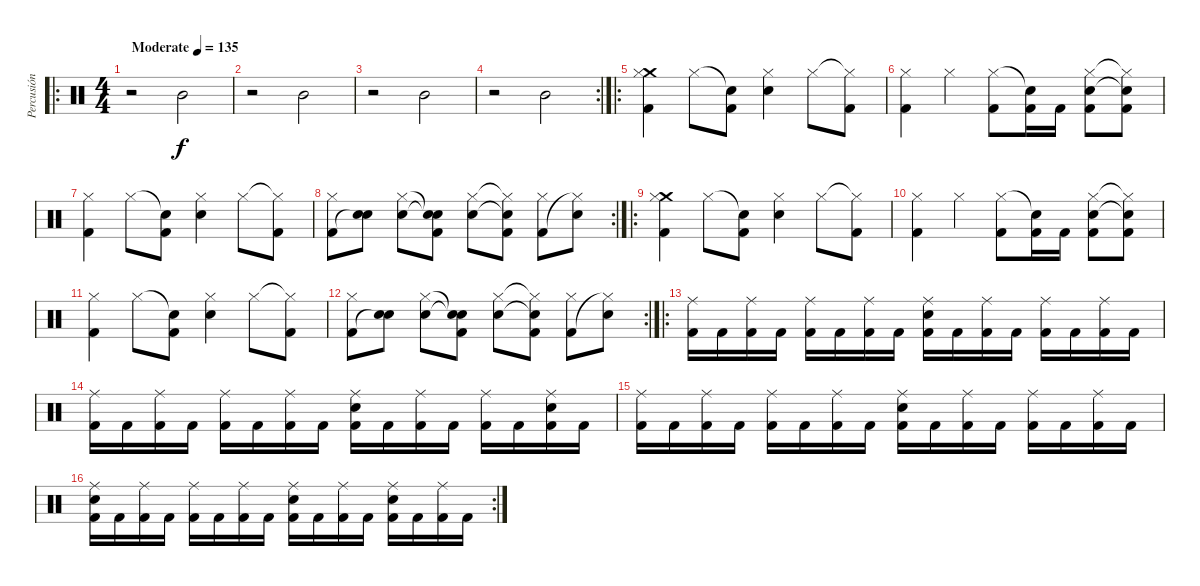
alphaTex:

\track ("Percusión" "Percusión") {instrument percussion}
\staff {score}
\articulation defaults
\ro
\ts (4 4)
\tempo (135 "Moderate")
\clef neutral
\ks c
r.2{dy f} "Mid Tom (hit)".2 |
r.2 "Mid Tom (hit)".2 |
r.2 "Mid Tom (hit)".2 |
\rc 2
r.2 "Mid Tom (hit)".2 |
\ro
("Crash medium (hit)" "Hi-Hat (closed)" "Kick (hit) 2").4 "Hi-Hat (closed)".8 ("Snare (hit)"{t} "Kick (hit) 2").8 ("Snare (hit) 2" "Hi-Hat (closed)").4 "Hi-Hat (closed)".8 ("Hi-Hat (closed)"{t} "Kick (hit) 2").8 |
("Hi-Hat (closed)" "Kick (hit) 2").4 "Hi-Hat (closed)".4 ("Hi-Hat (closed)" "Kick (hit) 2").8 ("Snare (hit)"{t} "Kick (hit) 2").16 "Kick (hit) 2".16 ("Snare (hit) 2" "Hi-Hat (closed)" "Kick (hit) 2").8 ("Snare (hit) 2"{t} "Hi-Hat (closed)"{t} "Kick (hit) 2").8 |
("Hi-Hat (closed)" "Kick (hit) 2").4 "Hi-Hat (closed)".8 ("Snare (hit)"{t} "Kick (hit) 2").8 ("Snare (hit) 2" "Hi-Hat (closed)").4 "Hi-Hat (closed)".8 ("Hi-Hat (closed)"{t} "Kick (hit) 2").8 |
\rc 2
("Hi-Hat (closed)" "Kick (hit) 2").8 ("Snare (hit) 2" "Snare (hit)"{t}).8 ("Snare (hit) 2" "Hi-Hat (closed)").8 ("Snare (hit)"{t} "Snare (hit)"{t} "Kick (hit) 2").8 ("Snare (hit) 2" "Hi-Hat (closed)").8 ("Snare (hit) 2"{t} "Hi-Hat (closed)"{t} "Kick (hit) 2").8 ("Hi-Hat (closed)" "Kick (hit) 2").8 ("Snare (hit) 2" "Hi-Hat (closed)"{t}).8 |
\ro
("Crash medium (hit)" "Hi-Hat (closed)" "Kick (hit) 2").4 "Hi-Hat (closed)".8 ("Snare (hit)"{t} "Kick (hit) 2").8 ("Snare (hit) 2" "Hi-Hat (closed)").4 "Hi-Hat (closed)".8 ("Hi-Hat (closed)"{t} "Kick (hit) 2").8 |
("Hi-Hat (closed)" "Kick (hit) 2").4 "Hi-Hat (closed)".4 ("Hi-Hat (closed)" "Kick (hit) 2").8 ("Snare (hit)"{t} "Kick (hit) 2").16 "Kick (hit) 2".16 ("Snare (hit) 2" "Hi-Hat (closed)" "Kick (hit) 2").8 ("Snare (hit) 2"{t} "Hi-Hat (closed)"{t} "Kick (hit) 2").8 |
("Hi-Hat (closed)" "Kick (hit) 2").4 "Hi-Hat (closed)".8 ("Snare (hit)"{t} "Kick (hit) 2").8 ("Snare (hit) 2" "Hi-Hat (closed)").4 "Hi-Hat (closed)".8 ("Hi-Hat (closed)"{t} "Kick (hit) 2").8 |
\rc 2
("Hi-Hat (closed)" "Kick (hit) 2").8 ("Snare (hit) 2" "Snare (hit)"{t}).8 ("Snare (hit) 2" "Hi-Hat (closed)").8 ("Snare (hit)"{t} "Snare (hit)"{t} "Kick (hit) 2").8 ("Snare (hit) 2" "Hi-Hat (closed)").8 ("Snare (hit) 2"{t} "Hi-Hat (closed)"{t} "Kick (hit) 2").8 ("Hi-Hat (closed)" "Kick (hit) 2").8 ("Snare (hit) 2" "Hi-Hat (closed)"{t}).8 |
\ro
("Kick (hit) 2" "Ride (middle)").16 "Kick (hit) 2".16 ("Kick (hit) 2" "Ride (middle)").16 "Kick (hit) 2".16 ("Kick (hit) 2" "Ride (middle)").16 "Kick (hit) 2".16 ("Kick (hit) 2" "Ride (middle)").16 "Kick (hit) 2".16 ("Snare (hit) 2" "Kick (hit) 2" "Ride (middle)").16 "Kick (hit) 2".16 ("Kick (hit) 2" "Ride (middle)").16 "Kick (hit) 2".16 ("Kick (hit) 2" "Ride (middle)").16 "Kick (hit) 2".16 ("Kick (hit) 2" "Ride (middle)").16 "Kick (hit) 2".16 |
("Kick (hit) 2" "Ride (middle)").16 "Kick (hit) 2".16 ("Kick (hit) 2" "Ride (middle)").16 "Kick (hit) 2".16 ("Kick (hit) 2" "Ride (middle)").16 "Kick (hit) 2".16 ("Kick (hit) 2" "Ride (middle)").16 "Kick (hit) 2".16 ("Snare (hit) 2" "Kick (hit) 2" "Ride (middle)").16 "Kick (hit) 2".16 ("Kick (hit) 2" "Ride (middle)").16 "Kick (hit) 2".16 ("Kick (hit) 2" "Ride (middle)").16 "Kick (hit) 2".16 ("Snare (hit) 2" "Kick (hit) 2" "Ride (middle)").16 "Kick (hit) 2".16 |
("Kick (hit) 2" "Ride (middle)").16 "Kick (hit) 2".16 ("Kick (hit) 2" "Ride (middle)").16 "Kick (hit) 2".16 ("Kick (hit) 2" "Ride (middle)").16 "Kick (hit) 2".16 ("Kick (hit) 2" "Ride (middle)").16 "Kick (hit) 2".16 ("Snare (hit) 2" "Kick (hit) 2" "Ride (middle)").16 "Kick (hit) 2".16 ("Kick (hit) 2" "Ride (middle)").16 "Kick (hit) 2".16 ("Kick (hit) 2" "Ride (middle)").16 "Kick (hit) 2".16 ("Kick (hit) 2" "Ride (middle)").16 "Kick (hit) 2".16 |
\rc 2
("Snare (hit) 2" "Kick (hit) 2" "Ride (middle)").16 "Kick (hit) 2".16 ("Kick (hit) 2" "Ride (middle)").16 "Kick (hit) 2".16 ("Kick (hit) 2" "Ride (middle)").16 "Kick (hit) 2".16 ("Kick (hit) 2" "Ride (middle)").16 "Kick (hit) 2".16 ("Snare (hit) 2" "Kick (hit) 2" "Ride (middle)").16 "Kick (hit) 2".16 ("Kick (hit) 2" "Ride (middle)").16 "Kick (hit) 2".16 ("Snare (hit) 2" "Kick (hit) 2" "Ride (middle)").16 "Kick (hit) 2".16 ("Kick (hit) 2" "Ride (middle)").16 "Kick (hit) 2".16
